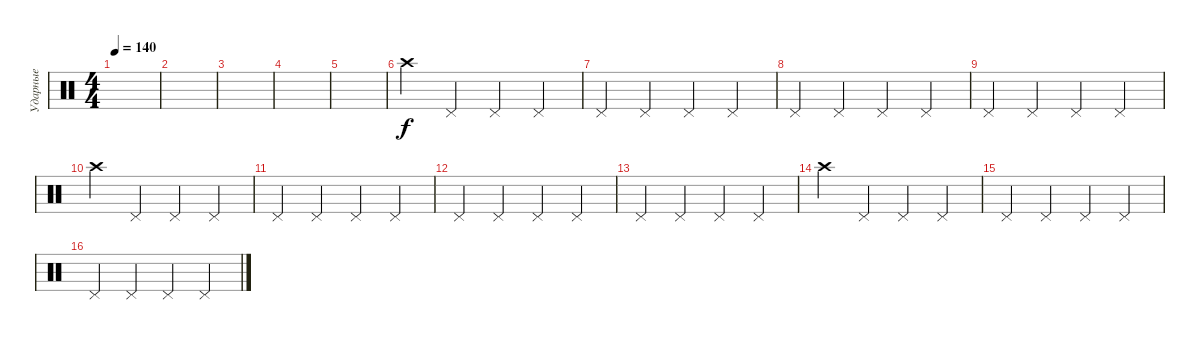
\track ("Ударные" "Ударные") {instrument percussion}
\staff {score}
\articulation defaults
\ts (4 4)
\tempo 140
\clef neutral
\ks c
|
|
|
|
|
"Crash high (hit)".4 "Pedal Hi-Hat (hit)".4 "Pedal Hi-Hat (hit)".4 "Pedal Hi-Hat (hit)".4 |
"Pedal Hi-Hat (hit)".4 "Pedal Hi-Hat (hit)".4 "Pedal Hi-Hat (hit)".4 "Pedal Hi-Hat (hit)".4 |
"Pedal Hi-Hat (hit)".4 "Pedal Hi-Hat (hit)".4 "Pedal Hi-Hat (hit)".4 "Pedal Hi-Hat (hit)".4 |
"Pedal Hi-Hat (hit)".4 "Pedal Hi-Hat (hit)".4 "Pedal Hi-Hat (hit)".4 "Pedal Hi-Hat (hit)".4 |
"Crash high (hit)".4 "Pedal Hi-Hat (hit)".4 "Pedal Hi-Hat (hit)".4 "Pedal Hi-Hat (hit)".4 |
"Pedal Hi-Hat (hit)".4 "Pedal Hi-Hat (hit)".4 "Pedal Hi-Hat (hit)".4 "Pedal Hi-Hat (hit)".4 |
"Pedal Hi-Hat (hit)".4 "Pedal Hi-Hat (hit)".4 "Pedal Hi-Hat (hit)".4 "Pedal Hi-Hat (hit)".4 |
"Pedal Hi-Hat (hit)".4 "Pedal Hi-Hat (hit)".4 "Pedal Hi-Hat (hit)".4 "Pedal Hi-Hat (hit)".4 |
"Crash high (hit)".4 "Pedal Hi-Hat (hit)".4 "Pedal Hi-Hat (hit)".4 "Pedal Hi-Hat (hit)".4 |
"Pedal Hi-Hat (hit)".4 "Pedal Hi-Hat (hit)".4 "Pedal Hi-Hat (hit)".4 "Pedal Hi-Hat (hit)".4 |
"Pedal Hi-Hat (hit)".4 "Pedal Hi-Hat (hit)".4 "Pedal Hi-Hat (hit)".4 "Pedal Hi-Hat (hit)".4
